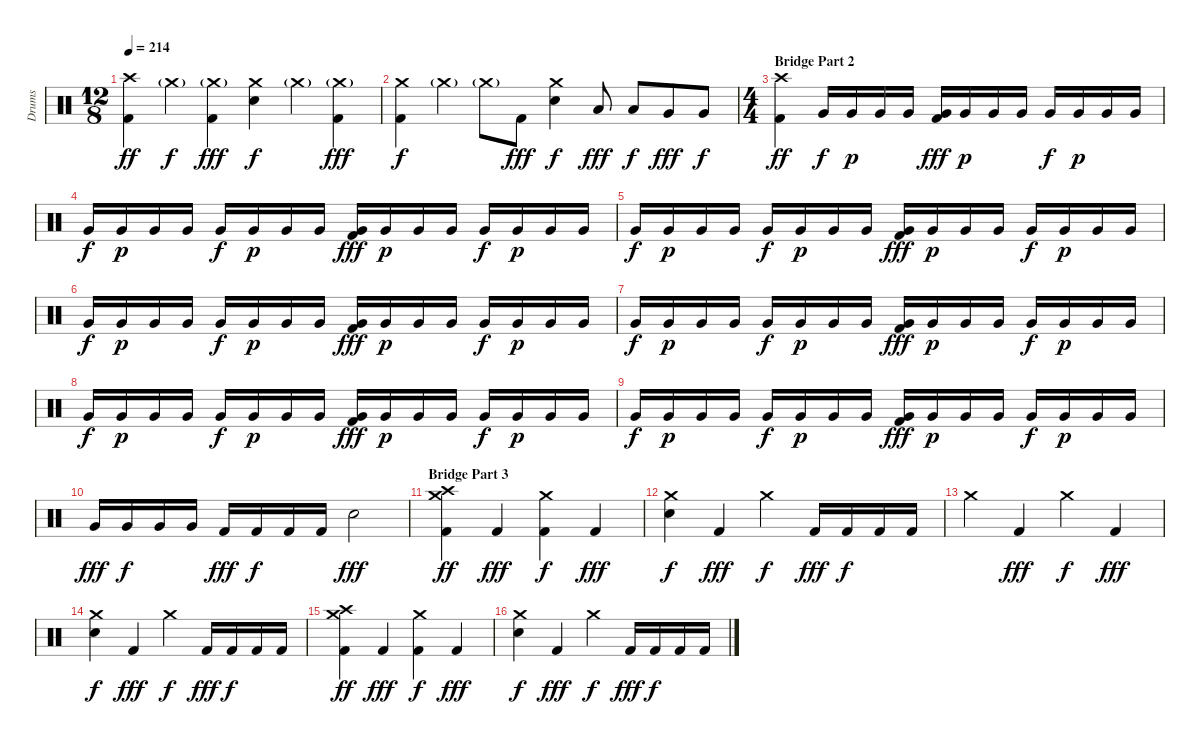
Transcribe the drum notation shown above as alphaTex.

\track ("Drums" "Drums") {instrument percussion}
\staff {score}
\articulation defaults
\ts (12 8)
\tempo 214
\clef neutral
\ks c
("Crash high (hit)" "Kick (hit) 2").4{dy ff} "Crash medium (hit)"{g}.4{dy f} ("Crash medium (hit)"{g} "Kick (hit) 2").4{dy fff} ("Crash medium (hit)" "Snare (hit) 2").4{dy f} "Crash medium (hit)"{g}.4 ("Crash medium (hit)"{g} "Kick (hit) 2").4{dy fff} |
("Crash medium (hit)" "Kick (hit) 2").4{dy f} "Crash medium (hit)"{g}.4 "Crash medium (hit)"{g}.8 "Kick (hit) 2".8{dy fff} ("Crash medium (hit)" "Snare (hit) 2").4{dy f} "Low Tom (hit)".8{dy fff} "Low Tom (hit)".8{dy f} "Very Low Tom (hit)".8{dy fff} "Very Low Tom (hit)".8{dy f} |
\ts (4 4)
\section ("" "Bridge Part 2")
("Crash high (hit)" "Kick (hit) 2").4{dy ff} "Very Low Tom (hit)".16{dy f} "Very Low Tom (hit)".16{dy p} "Very Low Tom (hit)".16 "Very Low Tom (hit)".16 ("Very Low Tom (hit)" "Kick (hit) 2").16{dy fff} "Very Low Tom (hit)".16{dy p} "Very Low Tom (hit)".16 "Very Low Tom (hit)".16 "Very Low Tom (hit)".16{dy f} "Very Low Tom (hit)".16{dy p} "Very Low Tom (hit)".16 "Very Low Tom (hit)".16 |
"Very Low Tom (hit)".16{dy f} "Very Low Tom (hit)".16{dy p} "Very Low Tom (hit)".16 "Very Low Tom (hit)".16 "Very Low Tom (hit)".16{dy f} "Very Low Tom (hit)".16{dy p} "Very Low Tom (hit)".16 "Very Low Tom (hit)".16 ("Very Low Tom (hit)" "Kick (hit) 2").16{dy fff} "Very Low Tom (hit)".16{dy p} "Very Low Tom (hit)".16 "Very Low Tom (hit)".16 "Very Low Tom (hit)".16{dy f} "Very Low Tom (hit)".16{dy p} "Very Low Tom (hit)".16 "Very Low Tom (hit)".16 |
"Very Low Tom (hit)".16{dy f} "Very Low Tom (hit)".16{dy p} "Very Low Tom (hit)".16 "Very Low Tom (hit)".16 "Very Low Tom (hit)".16{dy f} "Very Low Tom (hit)".16{dy p} "Very Low Tom (hit)".16 "Very Low Tom (hit)".16 ("Very Low Tom (hit)" "Kick (hit) 2").16{dy fff} "Very Low Tom (hit)".16{dy p} "Very Low Tom (hit)".16 "Very Low Tom (hit)".16 "Very Low Tom (hit)".16{dy f} "Very Low Tom (hit)".16{dy p} "Very Low Tom (hit)".16 "Very Low Tom (hit)".16 |
"Very Low Tom (hit)".16{dy f} "Very Low Tom (hit)".16{dy p} "Very Low Tom (hit)".16 "Very Low Tom (hit)".16 "Very Low Tom (hit)".16{dy f} "Very Low Tom (hit)".16{dy p} "Very Low Tom (hit)".16 "Very Low Tom (hit)".16 ("Very Low Tom (hit)" "Kick (hit) 2").16{dy fff} "Very Low Tom (hit)".16{dy p} "Very Low Tom (hit)".16 "Very Low Tom (hit)".16 "Very Low Tom (hit)".16{dy f} "Very Low Tom (hit)".16{dy p} "Very Low Tom (hit)".16 "Very Low Tom (hit)".16 |
"Very Low Tom (hit)".16{dy f} "Very Low Tom (hit)".16{dy p} "Very Low Tom (hit)".16 "Very Low Tom (hit)".16 "Very Low Tom (hit)".16{dy f} "Very Low Tom (hit)".16{dy p} "Very Low Tom (hit)".16 "Very Low Tom (hit)".16 ("Very Low Tom (hit)" "Kick (hit) 2").16{dy fff} "Very Low Tom (hit)".16{dy p} "Very Low Tom (hit)".16 "Very Low Tom (hit)".16 "Very Low Tom (hit)".16{dy f} "Very Low Tom (hit)".16{dy p} "Very Low Tom (hit)".16 "Very Low Tom (hit)".16 |
"Very Low Tom (hit)".16{dy f} "Very Low Tom (hit)".16{dy p} "Very Low Tom (hit)".16 "Very Low Tom (hit)".16 "Very Low Tom (hit)".16{dy f} "Very Low Tom (hit)".16{dy p} "Very Low Tom (hit)".16 "Very Low Tom (hit)".16 ("Very Low Tom (hit)" "Kick (hit) 2").16{dy fff} "Very Low Tom (hit)".16{dy p} "Very Low Tom (hit)".16 "Very Low Tom (hit)".16 "Very Low Tom (hit)".16{dy f} "Very Low Tom (hit)".16{dy p} "Very Low Tom (hit)".16 "Very Low Tom (hit)".16 |
"Very Low Tom (hit)".16{dy f} "Very Low Tom (hit)".16{dy p} "Very Low Tom (hit)".16 "Very Low Tom (hit)".16 "Very Low Tom (hit)".16{dy f} "Very Low Tom (hit)".16{dy p} "Very Low Tom (hit)".16 "Very Low Tom (hit)".16 ("Very Low Tom (hit)" "Kick (hit) 2").16{dy fff} "Very Low Tom (hit)".16{dy p} "Very Low Tom (hit)".16 "Very Low Tom (hit)".16 "Very Low Tom (hit)".16{dy f} "Very Low Tom (hit)".16{dy p} "Very Low Tom (hit)".16 "Very Low Tom (hit)".16 |
"Very Low Tom (hit)".16{dy fff} "Very Low Tom (hit)".16{dy f} "Very Low Tom (hit)".16 "Very Low Tom (hit)".16 "Kick (hit) 2".16{dy fff} "Kick (hit) 2".16{dy f} "Kick (hit) 2".16 "Kick (hit) 2".16 "Snare (hit) 2".2{dy fff} |
\section ("" "Bridge Part 3")
("Crash medium (hit)" "Crash high (hit)" "Kick (hit) 2").4{dy ff} "Kick (hit) 2".4{dy fff} ("Crash medium (hit)" "Kick (hit) 2").4{dy f} "Kick (hit) 2".4{dy fff} |
("Crash medium (hit)" "Snare (hit) 2").4{dy f} "Kick (hit) 2".4{dy fff} "Crash medium (hit)".4{dy f} "Kick (hit) 2".16{dy fff} "Kick (hit) 2".16{dy f} "Kick (hit) 2".16 "Kick (hit) 2".16 |
"Crash medium (hit)".4 "Kick (hit) 2".4{dy fff} "Crash medium (hit)".4{dy f} "Kick (hit) 2".4{dy fff} |
("Crash medium (hit)" "Snare (hit) 2").4{dy f} "Kick (hit) 2".4{dy fff} "Crash medium (hit)".4{dy f} "Kick (hit) 2".16{dy fff} "Kick (hit) 2".16{dy f} "Kick (hit) 2".16 "Kick (hit) 2".16 |
("Crash medium (hit)" "Crash high (hit)" "Kick (hit) 2").4{dy ff} "Kick (hit) 2".4{dy fff} ("Crash medium (hit)" "Kick (hit) 2").4{dy f} "Kick (hit) 2".4{dy fff} |
("Crash medium (hit)" "Snare (hit) 2").4{dy f} "Kick (hit) 2".4{dy fff} "Crash medium (hit)".4{dy f} "Kick (hit) 2".16{dy fff} "Kick (hit) 2".16{dy f} "Kick (hit) 2".16 "Kick (hit) 2".16
